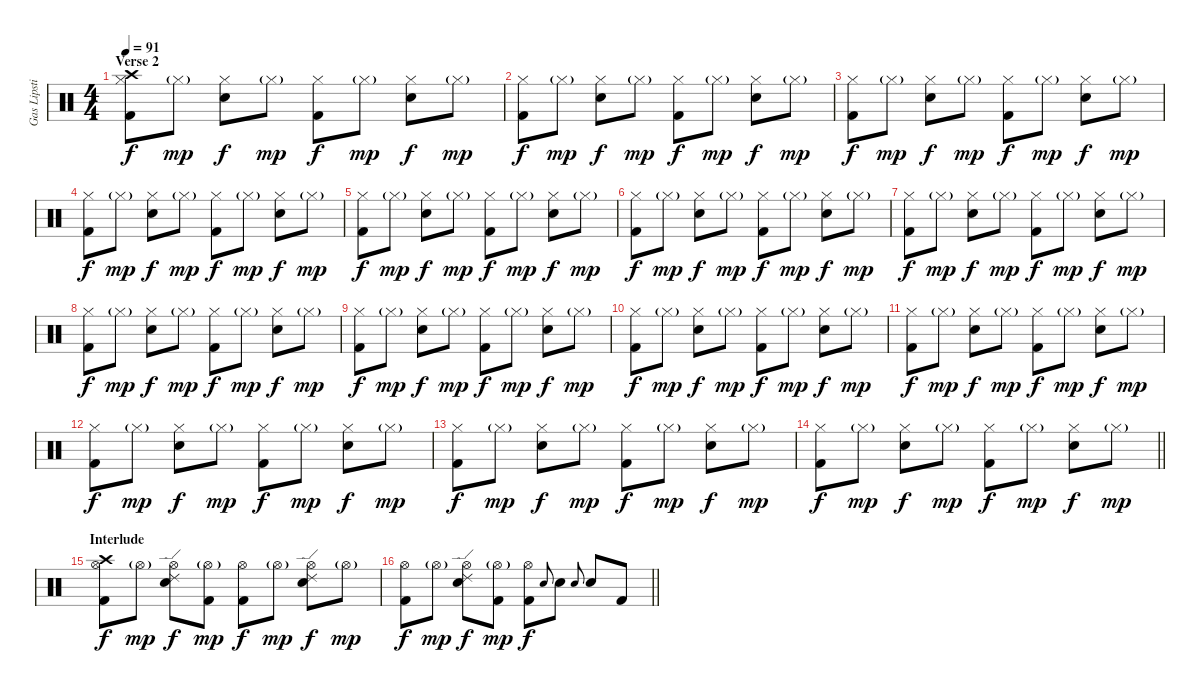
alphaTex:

\track ("Gas Lipstick (Drums)" "Gas Lipsti") {instrument percussion}
\staff {score}
\articulation defaults
\ts (4 4)
\section ("" "Verse 2")
\tempo 91
\clef neutral
\ks c
("Crash high (hit)" "Hi-Hat (closed)" "Kick (hit) 2").8{dy f} "Hi-Hat (closed)"{g}.8{dy mp} ("Hi-Hat (closed)" "Snare (hit) 2").8{dy f} "Hi-Hat (closed)"{g}.8{dy mp} ("Hi-Hat (closed)" "Kick (hit) 2").8{dy f} "Hi-Hat (closed)"{g}.8{dy mp} ("Hi-Hat (closed)" "Snare (hit) 2").8{dy f} "Hi-Hat (closed)"{g}.8{dy mp} |
("Hi-Hat (closed)" "Kick (hit) 2").8{dy f} "Hi-Hat (closed)"{g}.8{dy mp} ("Hi-Hat (closed)" "Snare (hit) 2").8{dy f} "Hi-Hat (closed)"{g}.8{dy mp} ("Hi-Hat (closed)" "Kick (hit) 2").8{dy f} "Hi-Hat (closed)"{g}.8{dy mp} ("Hi-Hat (closed)" "Snare (hit) 2").8{dy f} "Hi-Hat (closed)"{g}.8{dy mp} |
("Hi-Hat (closed)" "Kick (hit) 2").8{dy f} "Hi-Hat (closed)"{g}.8{dy mp} ("Hi-Hat (closed)" "Snare (hit) 2").8{dy f} "Hi-Hat (closed)"{g}.8{dy mp} ("Hi-Hat (closed)" "Kick (hit) 2").8{dy f} "Hi-Hat (closed)"{g}.8{dy mp} ("Hi-Hat (closed)" "Snare (hit) 2").8{dy f} "Hi-Hat (closed)"{g}.8{dy mp} |
("Hi-Hat (closed)" "Kick (hit) 2").8{dy f} "Hi-Hat (closed)"{g}.8{dy mp} ("Hi-Hat (closed)" "Snare (hit) 2").8{dy f} "Hi-Hat (closed)"{g}.8{dy mp} ("Hi-Hat (closed)" "Kick (hit) 2").8{dy f} "Hi-Hat (closed)"{g}.8{dy mp} ("Hi-Hat (closed)" "Snare (hit) 2").8{dy f} "Hi-Hat (closed)"{g}.8{dy mp} |
("Hi-Hat (closed)" "Kick (hit) 2").8{dy f} "Hi-Hat (closed)"{g}.8{dy mp} ("Hi-Hat (closed)" "Snare (hit) 2").8{dy f} "Hi-Hat (closed)"{g}.8{dy mp} ("Hi-Hat (closed)" "Kick (hit) 2").8{dy f} "Hi-Hat (closed)"{g}.8{dy mp} ("Hi-Hat (closed)" "Snare (hit) 2").8{dy f} "Hi-Hat (closed)"{g}.8{dy mp} |
("Hi-Hat (closed)" "Kick (hit) 2").8{dy f} "Hi-Hat (closed)"{g}.8{dy mp} ("Hi-Hat (closed)" "Snare (hit) 2").8{dy f} "Hi-Hat (closed)"{g}.8{dy mp} ("Hi-Hat (closed)" "Kick (hit) 2").8{dy f} "Hi-Hat (closed)"{g}.8{dy mp} ("Hi-Hat (closed)" "Snare (hit) 2").8{dy f} "Hi-Hat (closed)"{g}.8{dy mp} |
("Hi-Hat (closed)" "Kick (hit) 2").8{dy f} "Hi-Hat (closed)"{g}.8{dy mp} ("Hi-Hat (closed)" "Snare (hit) 2").8{dy f} "Hi-Hat (closed)"{g}.8{dy mp} ("Hi-Hat (closed)" "Kick (hit) 2").8{dy f} "Hi-Hat (closed)"{g}.8{dy mp} ("Hi-Hat (closed)" "Snare (hit) 2").8{dy f} "Hi-Hat (closed)"{g}.8{dy mp} |
("Hi-Hat (closed)" "Kick (hit) 2").8{dy f} "Hi-Hat (closed)"{g}.8{dy mp} ("Hi-Hat (closed)" "Snare (hit) 2").8{dy f} "Hi-Hat (closed)"{g}.8{dy mp} ("Hi-Hat (closed)" "Kick (hit) 2").8{dy f} "Hi-Hat (closed)"{g}.8{dy mp} ("Hi-Hat (closed)" "Snare (hit) 2").8{dy f} "Hi-Hat (closed)"{g}.8{dy mp} |
("Hi-Hat (closed)" "Kick (hit) 2").8{dy f} "Hi-Hat (closed)"{g}.8{dy mp} ("Hi-Hat (closed)" "Snare (hit) 2").8{dy f} "Hi-Hat (closed)"{g}.8{dy mp} ("Hi-Hat (closed)" "Kick (hit) 2").8{dy f} "Hi-Hat (closed)"{g}.8{dy mp} ("Hi-Hat (closed)" "Snare (hit) 2").8{dy f} "Hi-Hat (closed)"{g}.8{dy mp} |
("Hi-Hat (closed)" "Kick (hit) 2").8{dy f} "Hi-Hat (closed)"{g}.8{dy mp} ("Hi-Hat (closed)" "Snare (hit) 2").8{dy f} "Hi-Hat (closed)"{g}.8{dy mp} ("Hi-Hat (closed)" "Kick (hit) 2").8{dy f} "Hi-Hat (closed)"{g}.8{dy mp} ("Hi-Hat (closed)" "Snare (hit) 2").8{dy f} "Hi-Hat (closed)"{g}.8{dy mp} |
("Hi-Hat (closed)" "Kick (hit) 2").8{dy f} "Hi-Hat (closed)"{g}.8{dy mp} ("Hi-Hat (closed)" "Snare (hit) 2").8{dy f} "Hi-Hat (closed)"{g}.8{dy mp} ("Hi-Hat (closed)" "Kick (hit) 2").8{dy f} "Hi-Hat (closed)"{g}.8{dy mp} ("Hi-Hat (closed)" "Snare (hit) 2").8{dy f} "Hi-Hat (closed)"{g}.8{dy mp} |
("Hi-Hat (closed)" "Kick (hit) 2").8{dy f} "Hi-Hat (closed)"{g}.8{dy mp} ("Hi-Hat (closed)" "Snare (hit) 2").8{dy f} "Hi-Hat (closed)"{g}.8{dy mp} ("Hi-Hat (closed)" "Kick (hit) 2").8{dy f} "Hi-Hat (closed)"{g}.8{dy mp} ("Hi-Hat (closed)" "Snare (hit) 2").8{dy f} "Hi-Hat (closed)"{g}.8{dy mp} |
("Hi-Hat (closed)" "Kick (hit) 2").8{dy f} "Hi-Hat (closed)"{g}.8{dy mp} ("Hi-Hat (closed)" "Snare (hit) 2").8{dy f} "Hi-Hat (closed)"{g}.8{dy mp} ("Hi-Hat (closed)" "Kick (hit) 2").8{dy f} "Hi-Hat (closed)"{g}.8{dy mp} ("Hi-Hat (closed)" "Snare (hit) 2").8{dy f} "Hi-Hat (closed)"{g}.8{dy mp} |
\barLineRight lightlight
("Hi-Hat (closed)" "Kick (hit) 2").8{dy f} "Hi-Hat (closed)"{g}.8{dy mp} ("Hi-Hat (closed)" "Snare (hit) 2").8{dy f} "Hi-Hat (closed)"{g}.8{dy mp} ("Hi-Hat (closed)" "Kick (hit) 2").8{dy f} "Hi-Hat (closed)"{g}.8{dy mp} ("Hi-Hat (closed)" "Snare (hit) 2").8{dy f} "Hi-Hat (closed)"{g}.8{dy mp} |
\section ("" "Interlude")
("Crash high (hit)" "Hi-Hat (open)" "Kick (hit) 2").8{dy f} "Hi-Hat (open)"{g}.8{dy mp} ("Ride (edge) 2" "Hi-Hat (open)" "Snare (hit) 2").8{dy f} ("Hi-Hat (open)"{g} "Kick (hit) 2").8{dy mp} ("Hi-Hat (open)" "Kick (hit) 2").8{dy f} "Hi-Hat (open)"{g}.8{dy mp} ("Ride (edge) 2" "Hi-Hat (open)" "Snare (hit) 2").8{dy f} "Hi-Hat (open)"{g}.8{dy mp} |
\barLineRight lightlight
("Hi-Hat (open)" "Kick (hit) 2").8{dy f} "Hi-Hat (open)"{g}.8{dy mp} ("Ride (edge) 2" "Hi-Hat (open)" "Snare (hit) 2").8{dy f} ("Hi-Hat (open)"{g} "Kick (hit) 2").8{dy mp} ("Hi-Hat (open)" "Kick (hit) 2").8{dy f} "Snare (hit) 2".8{gr onbeat} "Snare (hit) 2".8 "Snare (hit) 2".8{gr onbeat} "Snare (hit) 2".8 "Kick (hit) 2".8
